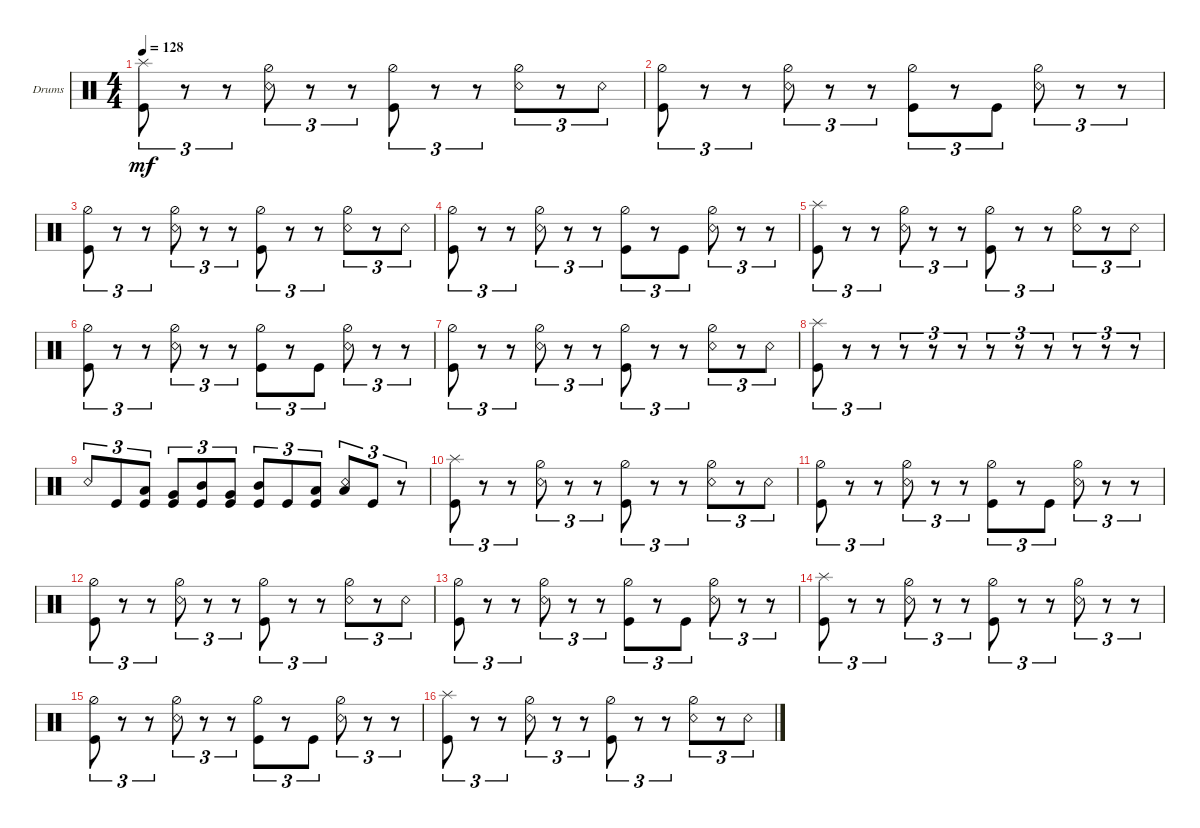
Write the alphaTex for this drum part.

\defaultSystemsLayout 4
\bracketExtendMode groupsimilarinstruments
\firstSystemTrackNameOrientation horizontal
\otherSystemsTrackNameOrientation horizontal
\track ("Drumkit" "Drums") {instrument percussion}
\staff {score}
\articulation defaults
\ts (4 4)
\tempo 128
\clef neutral
\ks c
("Kick (hit)" "Splash (hit)").8{tu (3 2) dy mf} r.8{tu (3 2)} r.8{tu (3 2)} ("Snare (rim shot)" "Hi-Hat (half)").8{tu (3 2)} r.8{tu (3 2)} r.8{tu (3 2)} ("Kick (hit)" "Hi-Hat (half)").8{tu (3 2)} r.8{tu (3 2)} r.8{tu (3 2)} ("Snare (rim shot)" "Hi-Hat (half)").8{tu (3 2)} r.8{tu (3 2)} "Snare (rim shot)".8{tu (3 2)} |
("Kick (hit)" "Hi-Hat (half)").8{tu (3 2)} r.8{tu (3 2)} r.8{tu (3 2)} ("Snare (rim shot)" "Hi-Hat (half)").8{tu (3 2)} r.8{tu (3 2)} r.8{tu (3 2)} ("Kick (hit)" "Hi-Hat (half)").8{tu (3 2)} r.8{tu (3 2)} "Kick (hit)".8{tu (3 2)} ("Snare (rim shot)" "Hi-Hat (half)").8{tu (3 2)} r.8{tu (3 2)} r.8{tu (3 2)} |
("Kick (hit)" "Hi-Hat (half)").8{tu (3 2)} r.8{tu (3 2)} r.8{tu (3 2)} ("Snare (rim shot)" "Hi-Hat (half)").8{tu (3 2)} r.8{tu (3 2)} r.8{tu (3 2)} ("Kick (hit)" "Hi-Hat (half)").8{tu (3 2)} r.8{tu (3 2)} r.8{tu (3 2)} ("Snare (rim shot)" "Hi-Hat (half)").8{tu (3 2)} r.8{tu (3 2)} "Snare (rim shot)".8{tu (3 2)} |
("Kick (hit)" "Hi-Hat (half)").8{tu (3 2)} r.8{tu (3 2)} r.8{tu (3 2)} ("Snare (rim shot)" "Hi-Hat (half)").8{tu (3 2)} r.8{tu (3 2)} r.8{tu (3 2)} ("Kick (hit)" "Hi-Hat (half)").8{tu (3 2)} r.8{tu (3 2)} "Kick (hit)".8{tu (3 2)} ("Snare (rim shot)" "Hi-Hat (half)").8{tu (3 2)} r.8{tu (3 2)} r.8{tu (3 2)} |
("Kick (hit)" "Splash (hit)").8{tu (3 2)} r.8{tu (3 2)} r.8{tu (3 2)} ("Snare (rim shot)" "Hi-Hat (half)").8{tu (3 2)} r.8{tu (3 2)} r.8{tu (3 2)} ("Kick (hit)" "Hi-Hat (half)").8{tu (3 2)} r.8{tu (3 2)} r.8{tu (3 2)} ("Snare (rim shot)" "Hi-Hat (half)").8{tu (3 2)} r.8{tu (3 2)} "Snare (rim shot)".8{tu (3 2)} |
("Kick (hit)" "Hi-Hat (half)").8{tu (3 2)} r.8{tu (3 2)} r.8{tu (3 2)} ("Snare (rim shot)" "Hi-Hat (half)").8{tu (3 2)} r.8{tu (3 2)} r.8{tu (3 2)} ("Kick (hit)" "Hi-Hat (half)").8{tu (3 2)} r.8{tu (3 2)} "Kick (hit)".8{tu (3 2)} ("Snare (rim shot)" "Hi-Hat (half)").8{tu (3 2)} r.8{tu (3 2)} r.8{tu (3 2)} |
("Kick (hit)" "Hi-Hat (half)").8{tu (3 2)} r.8{tu (3 2)} r.8{tu (3 2)} ("Snare (rim shot)" "Hi-Hat (half)").8{tu (3 2)} r.8{tu (3 2)} r.8{tu (3 2)} ("Kick (hit)" "Hi-Hat (half)").8{tu (3 2)} r.8{tu (3 2)} r.8{tu (3 2)} ("Snare (rim shot)" "Hi-Hat (half)").8{tu (3 2)} r.8{tu (3 2)} "Snare (rim shot)".8{tu (3 2)} |
("Kick (hit)" "Splash (hit)").8{tu (3 2)} r.8{tu (3 2)} r.8{tu (3 2)} r.8{tu (3 2)} r.8{tu (3 2)} r.8{tu (3 2)} r.8{tu (3 2)} r.8{tu (3 2)} r.8{tu (3 2)} r.8{tu (3 2)} r.8{tu (3 2)} r.8{tu (3 2)} |
"Snare (rim shot)".8{tu (3 2)} "Kick (hit)".8{tu (3 2)} ("Low Tom (hit)" "Kick (hit)").8{tu (3 2)} ("Very Low Tom (hit)" "Kick (hit)").8{tu (3 2)} ("Mid Tom (hit)" "Kick (hit)").8{tu (3 2)} ("Very Low Tom (hit)" "Kick (hit)").8{tu (3 2)} ("Mid Tom (hit)" "Kick (hit)").8{tu (3 2)} "Kick (hit)".8{tu (3 2)} ("Low Tom (hit)" "Kick (hit)").8{tu (3 2)} ("Low Tom (hit)" "Snare (rim shot)").8{tu (3 2)} "Kick (hit)".8{tu (3 2)} r.8{tu (3 2)} |
("Kick (hit)" "Splash (hit)").8{tu (3 2)} r.8{tu (3 2)} r.8{tu (3 2)} ("Snare (rim shot)" "Hi-Hat (half)").8{tu (3 2)} r.8{tu (3 2)} r.8{tu (3 2)} ("Kick (hit)" "Hi-Hat (half)").8{tu (3 2)} r.8{tu (3 2)} r.8{tu (3 2)} ("Snare (rim shot)" "Hi-Hat (half)").8{tu (3 2)} r.8{tu (3 2)} "Snare (rim shot)".8{tu (3 2)} |
("Kick (hit)" "Hi-Hat (half)").8{tu (3 2)} r.8{tu (3 2)} r.8{tu (3 2)} ("Snare (rim shot)" "Hi-Hat (half)").8{tu (3 2)} r.8{tu (3 2)} r.8{tu (3 2)} ("Kick (hit)" "Hi-Hat (half)").8{tu (3 2)} r.8{tu (3 2)} "Kick (hit)".8{tu (3 2)} ("Snare (rim shot)" "Hi-Hat (half)").8{tu (3 2)} r.8{tu (3 2)} r.8{tu (3 2)} |
("Kick (hit)" "Hi-Hat (half)").8{tu (3 2)} r.8{tu (3 2)} r.8{tu (3 2)} ("Snare (rim shot)" "Hi-Hat (half)").8{tu (3 2)} r.8{tu (3 2)} r.8{tu (3 2)} ("Kick (hit)" "Hi-Hat (half)").8{tu (3 2)} r.8{tu (3 2)} r.8{tu (3 2)} ("Snare (rim shot)" "Hi-Hat (half)").8{tu (3 2)} r.8{tu (3 2)} "Snare (rim shot)".8{tu (3 2)} |
("Kick (hit)" "Hi-Hat (half)").8{tu (3 2)} r.8{tu (3 2)} r.8{tu (3 2)} ("Snare (rim shot)" "Hi-Hat (half)").8{tu (3 2)} r.8{tu (3 2)} r.8{tu (3 2)} ("Kick (hit)" "Hi-Hat (half)").8{tu (3 2)} r.8{tu (3 2)} "Kick (hit)".8{tu (3 2)} ("Snare (rim shot)" "Hi-Hat (half)").8{tu (3 2)} r.8{tu (3 2)} r.8{tu (3 2)} |
("Kick (hit)" "Splash (hit)").8{tu (3 2)} r.8{tu (3 2)} r.8{tu (3 2)} ("Snare (rim shot)" "Hi-Hat (half)").8{tu (3 2)} r.8{tu (3 2)} r.8{tu (3 2)} ("Kick (hit)" "Hi-Hat (half)").8{tu (3 2)} r.8{tu (3 2)} r.8{tu (3 2)} ("Snare (rim shot)" "Hi-Hat (half)").8{tu (3 2)} r.8{tu (3 2)} r.8{tu (3 2)} |
("Kick (hit)" "Hi-Hat (half)").8{tu (3 2)} r.8{tu (3 2)} r.8{tu (3 2)} ("Snare (rim shot)" "Hi-Hat (half)").8{tu (3 2)} r.8{tu (3 2)} r.8{tu (3 2)} ("Kick (hit)" "Hi-Hat (half)").8{tu (3 2)} r.8{tu (3 2)} "Kick (hit)".8{tu (3 2)} ("Snare (rim shot)" "Hi-Hat (half)").8{tu (3 2)} r.8{tu (3 2)} r.8{tu (3 2)} |
("Kick (hit)" "Splash (hit)").8{tu (3 2)} r.8{tu (3 2)} r.8{tu (3 2)} ("Snare (rim shot)" "Hi-Hat (half)").8{tu (3 2)} r.8{tu (3 2)} r.8{tu (3 2)} ("Kick (hit)" "Hi-Hat (half)").8{tu (3 2)} r.8{tu (3 2)} r.8{tu (3 2)} ("Snare (rim shot)" "Hi-Hat (half)").8{tu (3 2)} r.8{tu (3 2)} "Snare (rim shot)".8{tu (3 2)}
